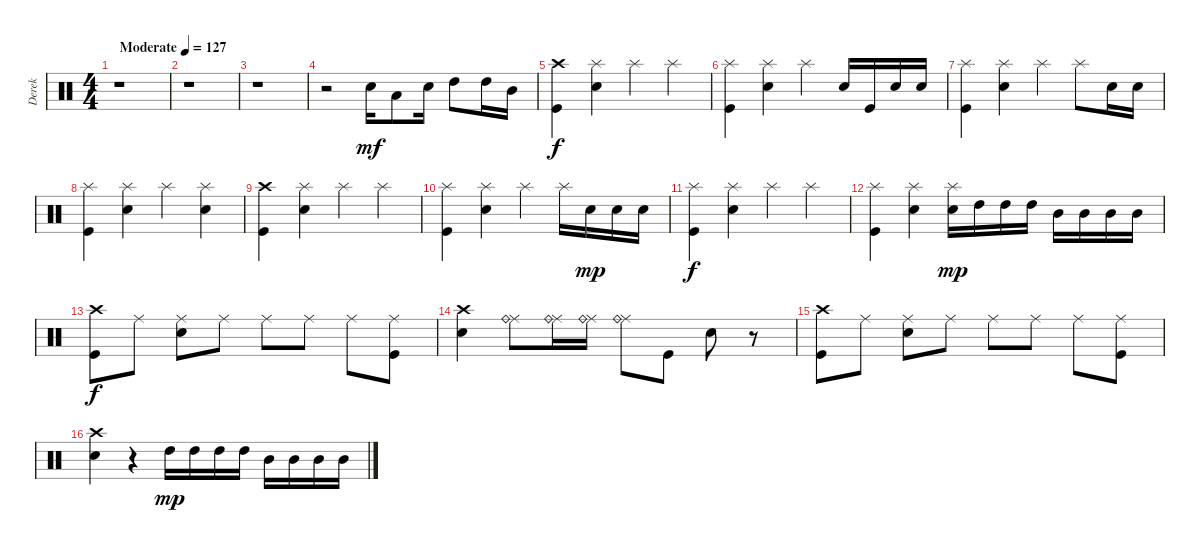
\track ("Derek" "Derek") {instrument percussion}
\staff {score}
\articulation defaults
\ts (4 4)
\tempo (127 "Moderate")
\clef neutral
\ks c
r.1{dy mf} |
r.1 |
r.1 |
r.2 "Snare (hit) 2".16 "Low Tom (hit)".8 "Snare (hit) 2".16 "High Tom (hit)".8 "High Tom (hit)".16 "Mid Tom (hit)".16 |
("Crash high (hit)" "Kick (hit)").4{dy f} ("Splash (hit)" "Snare (hit) 2").4 "Splash (hit)".4 "Splash (hit)".4 |
("Splash (hit)" "Kick (hit)").4 ("Splash (hit)" "Snare (hit) 2").4 "Splash (hit)".4 "Snare (hit) 2".16 "Kick (hit)".16 "Snare (hit) 2".16 "Snare (hit) 2".16 |
("Splash (hit)" "Kick (hit)").4 ("Splash (hit)" "Snare (hit) 2").4 "Splash (hit)".4 "Splash (hit)".8 "Snare (hit) 2".16 "Snare (hit) 2".16 |
("Splash (hit)" "Kick (hit)").4 ("Splash (hit)" "Snare (hit) 2").4 "Splash (hit)".4 ("Splash (hit)" "Snare (hit) 2").4 |
("Crash high (hit)" "Kick (hit)").4 ("Splash (hit)" "Snare (hit) 2").4 "Splash (hit)".4 "Splash (hit)".4 |
("Splash (hit)" "Kick (hit)").4 ("Splash (hit)" "Snare (hit) 2").4 "Splash (hit)".4 "Splash (hit)".16 "Snare (hit) 2".16{dy mp} "Snare (hit) 2".16 "Snare (hit) 2".16 |
("Splash (hit)" "Kick (hit)").4{dy f} ("Splash (hit)" "Snare (hit) 2").4 "Splash (hit)".4 "Splash (hit)".4 |
("Splash (hit)" "Kick (hit)").4 ("Splash (hit)" "Snare (hit) 2").4 ("Splash (hit)" "Snare (hit) 2").16{dy mp} "High Tom (hit)".16 "High Tom (hit)".16 "High Tom (hit)".16 "Mid Tom (hit)".16 "Mid Tom (hit)".16 "Mid Tom (hit)".16 "Mid Tom (hit)".16 |
("Crash high (hit)" "Kick (hit)").8{dy f} "Ride (middle)".8 ("Ride (middle)" "Snare (hit) 2").8 "Ride (middle)".8 "Ride (middle)".8 "Ride (middle)".8 "Ride (middle)".8 ("Ride (middle)" "Kick (hit)").8 |
("Crash high (hit)" "Snare (hit) 2").4 ("Ride (middle)" "Ride (bell)").8 ("Ride (middle)" "Ride (bell)").16 ("Ride (middle)" "Ride (bell)").16 ("Ride (middle)" "Ride (bell)").8 "Kick (hit)".8 "Snare (hit) 2".8 r.8 |
("Crash high (hit)" "Kick (hit)").8 "Ride (middle)".8 ("Ride (middle)" "Snare (hit) 2").8 "Ride (middle)".8 "Ride (middle)".8 "Ride (middle)".8 "Ride (middle)".8 ("Ride (middle)" "Kick (hit)").8 |
("Crash high (hit)" "Snare (hit) 2").4 r.4 "High Tom (hit)".16{dy mp} "High Tom (hit)".16 "High Tom (hit)".16 "High Tom (hit)".16 "Mid Tom (hit)".16 "Mid Tom (hit)".16 "Mid Tom (hit)".16 "Mid Tom (hit)".16
